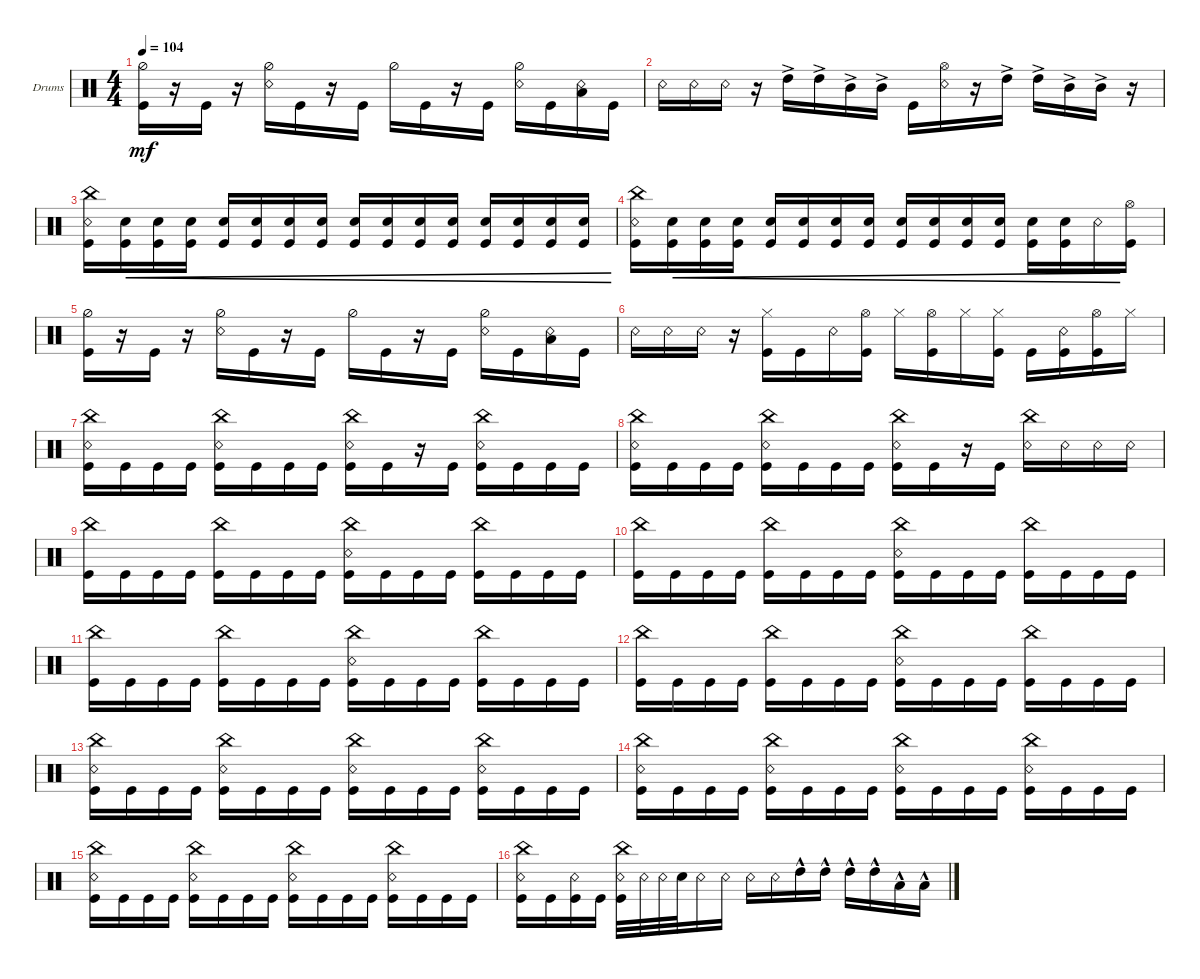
\defaultSystemsLayout 4
\bracketExtendMode groupsimilarinstruments
\firstSystemTrackNameOrientation horizontal
\otherSystemsTrackNameOrientation horizontal
\track ("Drumkit" "Drums") {instrument percussion}
\staff {score}
\articulation defaults
\ts (4 4)
\tempo 104
\clef neutral
\ks c
("Kick (hit)" "Hi-Hat (half)").16{dy mf} r.16 "Kick (hit)".16 r.16 ("Snare (rim shot)" "Hi-Hat (half)").16 "Kick (hit)".16 r.16 "Kick (hit)".16 "Hi-Hat (half)".16 "Kick (hit)".16 r.16 "Kick (hit)".16 ("Snare (rim shot)" "Hi-Hat (half)").16 "Kick (hit)".16 ("Snare (rim shot)" "Low Tom (hit)").16 "Kick (hit)".16 |
"Snare (rim shot)".16 "Snare (rim shot)".16 "Snare (rim shot)".16 r.16 "High Tom (hit)"{ac}.16 "High Tom (hit)"{ac}.16 "Mid Tom (hit)"{ac}.16 "Mid Tom (hit)"{ac}.16 "Kick (hit)".16 ("Snare (rim shot)" "Hi-Hat (open)").16 r.16 "High Tom (hit)"{ac}.16 "High Tom (hit)"{ac}.16 "Mid Tom (hit)"{ac}.16 "Mid Tom (hit)"{ac}.16 r.16 |
("Kick (hit)" "Snare (rim shot)" "China (hit)").16 ("Kick (hit)" "Snare (hit) 2").16{cre} ("Kick (hit)" "Snare (hit) 2").16{cre} ("Kick (hit)" "Snare (hit) 2").16{cre} ("Kick (hit)" "Snare (hit) 2").16{cre} ("Kick (hit)" "Snare (hit) 2").16{cre} ("Kick (hit)" "Snare (hit) 2").16{cre} ("Kick (hit)" "Snare (hit) 2").16{cre} ("Kick (hit)" "Snare (hit) 2").16{cre} ("Kick (hit)" "Snare (hit) 2").16{cre} ("Kick (hit)" "Snare (hit) 2").16{cre} ("Kick (hit)" "Snare (hit) 2").16{cre} ("Kick (hit)" "Snare (hit) 2").16{cre} ("Kick (hit)" "Snare (hit) 2").16{cre} ("Kick (hit)" "Snare (hit) 2").16{cre} ("Kick (hit)" "Snare (hit) 2").16{cre} |
("Kick (hit)" "Snare (rim shot)" "China (hit)").16 ("Kick (hit)" "Snare (hit) 2").16{cre} ("Kick (hit)" "Snare (hit) 2").16{cre} ("Kick (hit)" "Snare (hit) 2").16{cre} ("Kick (hit)" "Snare (hit) 2").16{cre} ("Kick (hit)" "Snare (hit) 2").16{cre} ("Kick (hit)" "Snare (hit) 2").16{cre} ("Kick (hit)" "Snare (hit) 2").16{cre} ("Kick (hit)" "Snare (hit) 2").16{cre} ("Kick (hit)" "Snare (hit) 2").16{cre} ("Kick (hit)" "Snare (hit) 2").16{cre} ("Kick (hit)" "Snare (hit) 2").16{cre} ("Kick (hit)" "Snare (hit) 2").16{cre} ("Kick (hit)" "Snare (hit) 2").16{cre} "Snare (rim shot)".16{cre} ("Kick (hit)" "Hi-Hat (open)").16 |
("Kick (hit)" "Hi-Hat (half)").16 r.16 "Kick (hit)".16 r.16 ("Snare (rim shot)" "Hi-Hat (half)").16 "Kick (hit)".16 r.16 "Kick (hit)".16 "Hi-Hat (half)".16 "Kick (hit)".16 r.16 "Kick (hit)".16 ("Snare (rim shot)" "Hi-Hat (half)").16 "Kick (hit)".16 ("Snare (rim shot)" "Low Tom (hit)").16 "Kick (hit)".16 |
"Snare (rim shot)".16 "Snare (rim shot)".16 "Snare (rim shot)".16 r.16 ("Kick (hit)" "Hi-Hat (closed)").16 "Kick (hit)".16 "Snare (rim shot)".16 ("Kick (hit)" "Hi-Hat (open)").16 "Hi-Hat (closed)".16 ("Hi-Hat (open)" "Kick (hit)").16 "Hi-Hat (closed)".16 ("Kick (hit)" "Hi-Hat (closed)").16 "Kick (hit)".16 ("Kick (hit)" "Snare (rim shot)").16 ("Kick (hit)" "Hi-Hat (open)").16 "Hi-Hat (closed)".16 |
("Snare (rim shot)" "Kick (hit)" "China (hit)").16 "Kick (hit)".16 "Kick (hit)".16 "Kick (hit)".16 ("Kick (hit)" "Snare (rim shot)" "China (hit)").16 "Kick (hit)".16 "Kick (hit)".16 "Kick (hit)".16 ("Kick (hit)" "Snare (rim shot)" "China (hit)").16 "Kick (hit)".16 r.16 "Kick (hit)".16 ("Kick (hit)" "Snare (rim shot)" "China (hit)").16 "Kick (hit)".16 "Kick (hit)".16 "Kick (hit)".16 |
("Snare (rim shot)" "Kick (hit)" "China (hit)").16 "Kick (hit)".16 "Kick (hit)".16 "Kick (hit)".16 ("Kick (hit)" "Snare (rim shot)" "China (hit)").16 "Kick (hit)".16 "Kick (hit)".16 "Kick (hit)".16 ("Kick (hit)" "Snare (rim shot)" "China (hit)").16 "Kick (hit)".16 r.16 "Kick (hit)".16 ("Snare (rim shot)" "China (hit)").16 "Snare (rim shot)".16 "Snare (rim shot)".16 "Snare (rim shot)".16 |
("Kick (hit)" "China (hit)").16 "Kick (hit)".16 "Kick (hit)".16 "Kick (hit)".16 ("Kick (hit)" "China (hit)").16 "Kick (hit)".16 "Kick (hit)".16 "Kick (hit)".16 ("Kick (hit)" "China (hit)" "Snare (rim shot)").16 "Kick (hit)".16 "Kick (hit)".16 "Kick (hit)".16 ("Kick (hit)" "China (hit)").16 "Kick (hit)".16 "Kick (hit)".16 "Kick (hit)".16 |
("Kick (hit)" "China (hit)").16 "Kick (hit)".16 "Kick (hit)".16 "Kick (hit)".16 ("Kick (hit)" "China (hit)").16 "Kick (hit)".16 "Kick (hit)".16 "Kick (hit)".16 ("Kick (hit)" "China (hit)" "Snare (rim shot)").16 "Kick (hit)".16 "Kick (hit)".16 "Kick (hit)".16 ("Kick (hit)" "China (hit)").16 "Kick (hit)".16 "Kick (hit)".16 "Kick (hit)".16 |
("Kick (hit)" "China (hit)").16 "Kick (hit)".16 "Kick (hit)".16 "Kick (hit)".16 ("Kick (hit)" "China (hit)").16 "Kick (hit)".16 "Kick (hit)".16 "Kick (hit)".16 ("Kick (hit)" "China (hit)" "Snare (rim shot)").16 "Kick (hit)".16 "Kick (hit)".16 "Kick (hit)".16 ("Kick (hit)" "China (hit)").16 "Kick (hit)".16 "Kick (hit)".16 "Kick (hit)".16 |
("Kick (hit)" "China (hit)").16 "Kick (hit)".16 "Kick (hit)".16 "Kick (hit)".16 ("Kick (hit)" "China (hit)").16 "Kick (hit)".16 "Kick (hit)".16 "Kick (hit)".16 ("Kick (hit)" "China (hit)" "Snare (rim shot)").16 "Kick (hit)".16 "Kick (hit)".16 "Kick (hit)".16 ("Kick (hit)" "China (hit)").16 "Kick (hit)".16 "Kick (hit)".16 "Kick (hit)".16 |
("Kick (hit)" "China (hit)" "Snare (rim shot)").16 "Kick (hit)".16 "Kick (hit)".16 "Kick (hit)".16 ("Kick (hit)" "China (hit)" "Snare (rim shot)").16 "Kick (hit)".16 "Kick (hit)".16 "Kick (hit)".16 ("Kick (hit)" "China (hit)" "Snare (rim shot)").16 "Kick (hit)".16 "Kick (hit)".16 "Kick (hit)".16 ("Kick (hit)" "China (hit)" "Snare (rim shot)").16 "Kick (hit)".16 "Kick (hit)".16 "Kick (hit)".16 |
("Kick (hit)" "China (hit)" "Snare (rim shot)").16 "Kick (hit)".16 "Kick (hit)".16 "Kick (hit)".16 ("Kick (hit)" "China (hit)" "Snare (rim shot)").16 "Kick (hit)".16 "Kick (hit)".16 "Kick (hit)".16 ("Kick (hit)" "China (hit)" "Snare (rim shot)").16 "Kick (hit)".16 "Kick (hit)".16 "Kick (hit)".16 ("Kick (hit)" "China (hit)" "Snare (rim shot)").16 "Kick (hit)".16 "Kick (hit)".16 "Kick (hit)".16 |
("Kick (hit)" "China (hit)" "Snare (rim shot)").16 "Kick (hit)".16 "Kick (hit)".16 "Kick (hit)".16 ("Kick (hit)" "China (hit)" "Snare (rim shot)").16 "Kick (hit)".16 "Kick (hit)".16 "Kick (hit)".16 ("Kick (hit)" "China (hit)" "Snare (rim shot)").16 "Kick (hit)".16 "Kick (hit)".16 "Kick (hit)".16 ("Kick (hit)" "China (hit)" "Snare (rim shot)").16 "Kick (hit)".16 "Kick (hit)".16 "Kick (hit)".16 |
("Kick (hit)" "China (hit)" "Snare (rim shot)").16 "Kick (hit)".16 ("Kick (hit)" "Snare (rim shot)").16 "Kick (hit)".16 ("Kick (hit)" "China (hit)" "Snare (rim shot)").32 "Snare (rim shot)".32 "Snare (rim shot)".32 "Snare (hit) 2".32 "Snare (rim shot)".16 "Snare (rim shot)".16 "Snare (rim shot)".16 "Snare (rim shot)".16 "High Tom (hit)"{hac}.16 "High Tom (hit)"{hac}.16 "High Tom (hit)"{hac}.16 "High Tom (hit)"{hac}.16 "Low Tom (hit)"{hac}.16 "Low Tom (hit)"{hac}.16
